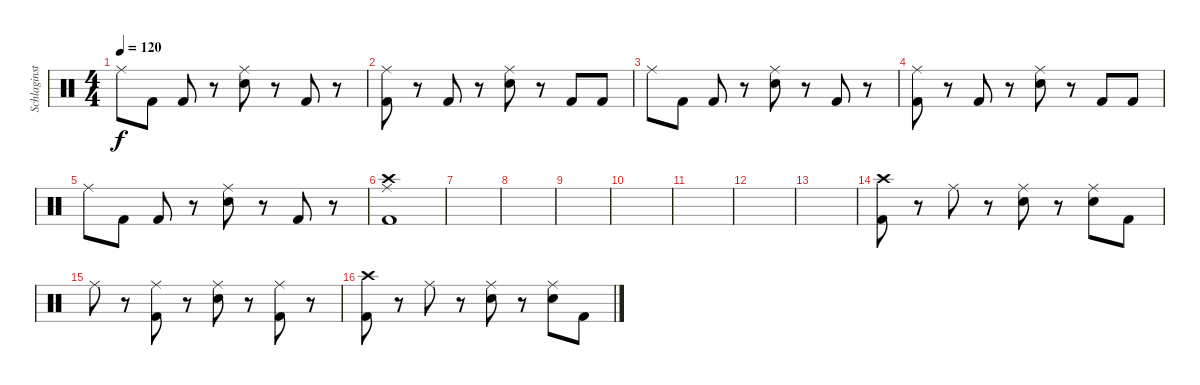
\track ("Schlaginstrumente - Auswahl" "Schlaginst") {instrument percussion}
\staff {score}
\articulation defaults
\ts (4 4)
\tempo 120
\clef neutral
\ks c "Ride (middle)".8{dy f} "Kick (hit) 2".8 "Kick (hit) 2".8
r.8 ("Ride (middle)" "Snare (hit) 2").8 r.8 "Kick (hit) 2".8 r.8 |
("Ride (middle)" "Kick (hit) 2").8 r.8 "Kick (hit) 2".8 r.8 ("Ride (middle)" "Snare (hit) 2").8 r.8 "Kick (hit) 2".8 "Kick (hit) 2".8 |
"Ride (middle)".8 "Kick (hit) 2".8 "Kick (hit) 2".8 r.8 ("Ride (middle)" "Snare (hit) 2").8 r.8 "Kick (hit) 2".8 r.8 |
("Ride (middle)" "Kick (hit) 2").8 r.8 "Kick (hit) 2".8 r.8 ("Ride (middle)" "Snare (hit) 2").8 r.8 "Kick (hit) 2".8 "Kick (hit) 2".8 |
"Ride (middle)".8 "Kick (hit) 2".8 "Kick (hit) 2".8 r.8 ("Ride (middle)" "Snare (hit) 2").8 r.8 "Kick (hit) 2".8 r.8 |
("Ride (middle)" "Crash high (hit)" "Kick (hit) 2").1 |
|
|
|
|
|
|
|
("Crash high (hit)" "Kick (hit) 2").8 r.8 "Ride (middle)".8 r.8 ("Ride (middle)" "Snare (hit) 2").8 r.8 ("Ride (middle)" "Snare (hit) 2").8 "Kick (hit) 2".8 |
"Ride (middle)".8 r.8 ("Ride (middle)" "Kick (hit) 2").8 r.8 ("Ride (middle)" "Snare (hit) 2").8 r.8 ("Ride (middle)" "Kick (hit) 2").8 r.8 |
("Crash high (hit)" "Kick (hit) 2").8 r.8 "Ride (middle)".8 r.8 ("Ride (middle)" "Snare (hit) 2").8 r.8 ("Ride (middle)" "Snare (hit) 2").8 "Kick (hit) 2".8
